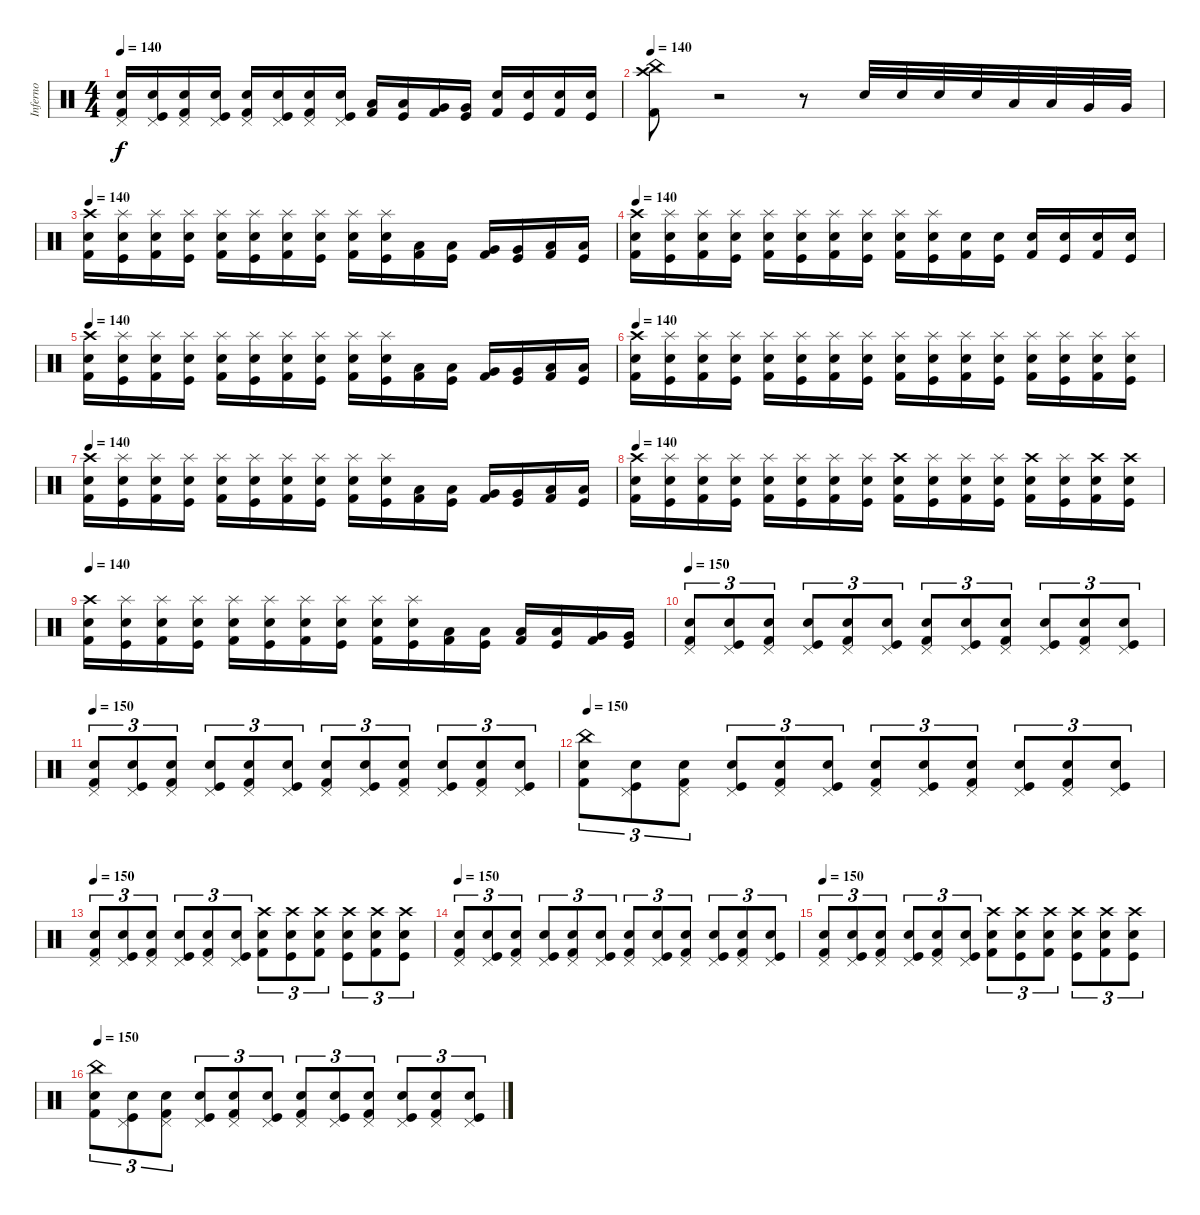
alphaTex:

\track ("Inferno" "Inferno") {instrument percussion}
\staff {score}
\articulation defaults
\ts (4 4)
\tempo 140
\clef neutral
\ks c
("Pedal Hi-Hat (hit)" "Electric Snare (hit)" "Kick (hit) 2").16{dy f} ("Pedal Hi-Hat (hit)" "Electric Snare (hit)" "Kick (hit)").16 ("Pedal Hi-Hat (hit)" "Electric Snare (hit)" "Kick (hit) 2").16 ("Pedal Hi-Hat (hit)" "Electric Snare (hit)" "Kick (hit)").16 ("Pedal Hi-Hat (hit)" "Electric Snare (hit)" "Kick (hit) 2").16 ("Pedal Hi-Hat (hit)" "Electric Snare (hit)" "Kick (hit)").16 ("Pedal Hi-Hat (hit)" "Electric Snare (hit)" "Kick (hit) 2").16 ("Pedal Hi-Hat (hit)" "Electric Snare (hit)" "Kick (hit)").16 ("Low Tom (hit)" "Kick (hit) 2").16 ("Low Tom (hit)" "Kick (hit)").16 ("Very Low Tom (hit)" "Kick (hit) 2").16 ("Very Low Tom (hit)" "Kick (hit)").16 ("Electric Snare (hit)" "Kick (hit) 2").16 ("Electric Snare (hit)" "Kick (hit)").16 ("Electric Snare (hit)" "Kick (hit) 2").16 ("Electric Snare (hit)" "Kick (hit)").16 |
\tempo 140
("Crash high (hit)" "China (hit)" "Kick (hit) 2").8 r.2 r.8 "Electric Snare (hit)".32 "Electric Snare (hit)".32 "Electric Snare (hit)".32 "Electric Snare (hit)".32 "Low Tom (hit)".32 "Low Tom (hit)".32 "Very Low Tom (hit)".32 "Very Low Tom (hit)".32 |
\tempo 140
("Crash high (hit)" "Electric Snare (hit)" "Kick (hit) 2").16 ("Splash (hit)" "Electric Snare (hit)" "Kick (hit)").16 ("Splash (hit)" "Electric Snare (hit)" "Kick (hit) 2").16 ("Splash (hit)" "Electric Snare (hit)" "Kick (hit)").16 ("Splash (hit)" "Electric Snare (hit)" "Kick (hit) 2").16 ("Splash (hit)" "Electric Snare (hit)" "Kick (hit)").16 ("Splash (hit)" "Electric Snare (hit)" "Kick (hit) 2").16 ("Splash (hit)" "Electric Snare (hit)" "Kick (hit)").16 ("Splash (hit)" "Electric Snare (hit)" "Kick (hit) 2").16 ("Splash (hit)" "Electric Snare (hit)" "Kick (hit)").16 ("Low Tom (hit)" "Kick (hit) 2").16 ("Low Tom (hit)" "Kick (hit)").16 ("Very Low Tom (hit)" "Kick (hit) 2").16 ("Very Low Tom (hit)" "Kick (hit)").16 ("Low Floor Tom (hit)" "Kick (hit) 2").16 ("Low Floor Tom (hit)" "Kick (hit)").16 |
\tempo 140
("Crash high (hit)" "Electric Snare (hit)" "Kick (hit) 2").16 ("Splash (hit)" "Electric Snare (hit)" "Kick (hit)").16 ("Splash (hit)" "Electric Snare (hit)" "Kick (hit) 2").16 ("Splash (hit)" "Electric Snare (hit)" "Kick (hit)").16 ("Splash (hit)" "Electric Snare (hit)" "Kick (hit) 2").16 ("Splash (hit)" "Electric Snare (hit)" "Kick (hit)").16 ("Splash (hit)" "Electric Snare (hit)" "Kick (hit) 2").16 ("Splash (hit)" "Electric Snare (hit)" "Kick (hit)").16 ("Splash (hit)" "Electric Snare (hit)" "Kick (hit) 2").16 ("Splash (hit)" "Electric Snare (hit)" "Kick (hit)").16 ("Electric Snare (hit)" "Kick (hit) 2").16 ("Electric Snare (hit)" "Kick (hit)").16 ("Electric Snare (hit)" "Kick (hit) 2").16 ("Electric Snare (hit)" "Kick (hit)").16 ("Electric Snare (hit)" "Kick (hit) 2").16 ("Electric Snare (hit)" "Kick (hit)").16 |
\tempo 140
("Crash high (hit)" "Electric Snare (hit)" "Kick (hit) 2").16 ("Splash (hit)" "Electric Snare (hit)" "Kick (hit)").16 ("Splash (hit)" "Electric Snare (hit)" "Kick (hit) 2").16 ("Splash (hit)" "Electric Snare (hit)" "Kick (hit)").16 ("Splash (hit)" "Electric Snare (hit)" "Kick (hit) 2").16 ("Splash (hit)" "Electric Snare (hit)" "Kick (hit)").16 ("Splash (hit)" "Electric Snare (hit)" "Kick (hit) 2").16 ("Splash (hit)" "Electric Snare (hit)" "Kick (hit)").16 ("Splash (hit)" "Electric Snare (hit)" "Kick (hit) 2").16 ("Splash (hit)" "Electric Snare (hit)" "Kick (hit)").16 ("Low Tom (hit)" "Kick (hit) 2").16 ("Low Tom (hit)" "Kick (hit)").16 ("Very Low Tom (hit)" "Kick (hit) 2").16 ("Very Low Tom (hit)" "Kick (hit)").16 ("Low Floor Tom (hit)" "Kick (hit) 2").16 ("Low Floor Tom (hit)" "Kick (hit)").16 |
\tempo 140
("Crash high (hit)" "Electric Snare (hit)" "Kick (hit) 2").16 ("Splash (hit)" "Electric Snare (hit)" "Kick (hit)").16 ("Splash (hit)" "Electric Snare (hit)" "Kick (hit) 2").16 ("Splash (hit)" "Electric Snare (hit)" "Kick (hit)").16 ("Splash (hit)" "Electric Snare (hit)" "Kick (hit) 2").16 ("Splash (hit)" "Electric Snare (hit)" "Kick (hit)").16 ("Splash (hit)" "Electric Snare (hit)" "Kick (hit) 2").16 ("Splash (hit)" "Electric Snare (hit)" "Kick (hit)").16 ("Splash (hit)" "Electric Snare (hit)" "Kick (hit) 2").16 ("Splash (hit)" "Electric Snare (hit)" "Kick (hit)").16 ("Splash (hit)" "Electric Snare (hit)" "Kick (hit) 2").16 ("Splash (hit)" "Electric Snare (hit)" "Kick (hit)").16 ("Splash (hit)" "Electric Snare (hit)" "Kick (hit) 2").16 ("Splash (hit)" "Electric Snare (hit)" "Kick (hit)").16 ("Splash (hit)" "Electric Snare (hit)" "Kick (hit) 2").16 ("Splash (hit)" "Electric Snare (hit)" "Kick (hit)").16 |
\tempo 140
("Crash high (hit)" "Electric Snare (hit)" "Kick (hit) 2").16 ("Splash (hit)" "Electric Snare (hit)" "Kick (hit)").16 ("Splash (hit)" "Electric Snare (hit)" "Kick (hit) 2").16 ("Splash (hit)" "Electric Snare (hit)" "Kick (hit)").16 ("Splash (hit)" "Electric Snare (hit)" "Kick (hit) 2").16 ("Splash (hit)" "Electric Snare (hit)" "Kick (hit)").16 ("Splash (hit)" "Electric Snare (hit)" "Kick (hit) 2").16 ("Splash (hit)" "Electric Snare (hit)" "Kick (hit)").16 ("Splash (hit)" "Electric Snare (hit)" "Kick (hit) 2").16 ("Splash (hit)" "Electric Snare (hit)" "Kick (hit)").16 ("Low Tom (hit)" "Kick (hit) 2").16 ("Low Tom (hit)" "Kick (hit)").16 ("Very Low Tom (hit)" "Kick (hit) 2").16 ("Very Low Tom (hit)" "Kick (hit)").16 ("Low Floor Tom (hit)" "Kick (hit) 2").16 ("Low Floor Tom (hit)" "Kick (hit)").16 |
\tempo 140
("Crash high (hit)" "Electric Snare (hit)" "Kick (hit) 2").16 ("Splash (hit)" "Electric Snare (hit)" "Kick (hit)").16 ("Splash (hit)" "Electric Snare (hit)" "Kick (hit) 2").16 ("Splash (hit)" "Electric Snare (hit)" "Kick (hit)").16 ("Splash (hit)" "Electric Snare (hit)" "Kick (hit) 2").16 ("Splash (hit)" "Electric Snare (hit)" "Kick (hit)").16 ("Splash (hit)" "Electric Snare (hit)" "Kick (hit) 2").16 ("Splash (hit)" "Electric Snare (hit)" "Kick (hit)").16 ("Crash high (hit)" "Electric Snare (hit)" "Kick (hit) 2").16 ("Splash (hit)" "Electric Snare (hit)" "Kick (hit)").16 ("Splash (hit)" "Electric Snare (hit)" "Kick (hit) 2").16 ("Splash (hit)" "Electric Snare (hit)" "Kick (hit)").16 ("Crash high (hit)" "Electric Snare (hit)" "Kick (hit) 2").16 ("Splash (hit)" "Electric Snare (hit)" "Kick (hit)").16 ("Crash high (hit)" "Electric Snare (hit)" "Kick (hit) 2").16 ("Crash high (hit)" "Electric Snare (hit)" "Kick (hit)").16 |
\tempo 140
("Crash high (hit)" "Electric Snare (hit)" "Kick (hit) 2").16 ("Splash (hit)" "Electric Snare (hit)" "Kick (hit)").16 ("Splash (hit)" "Electric Snare (hit)" "Kick (hit) 2").16 ("Splash (hit)" "Electric Snare (hit)" "Kick (hit)").16 ("Splash (hit)" "Electric Snare (hit)" "Kick (hit) 2").16 ("Splash (hit)" "Electric Snare (hit)" "Kick (hit)").16 ("Splash (hit)" "Electric Snare (hit)" "Kick (hit) 2").16 ("Splash (hit)" "Electric Snare (hit)" "Kick (hit)").16 ("Splash (hit)" "Electric Snare (hit)" "Kick (hit) 2").16 ("Splash (hit)" "Electric Snare (hit)" "Kick (hit)").16 ("Low Tom (hit)" "Kick (hit) 2").16 ("Low Tom (hit)" "Kick (hit)").16 ("Low Tom (hit)" "Kick (hit) 2").16 ("Low Tom (hit)" "Kick (hit)").16 ("Very Low Tom (hit)" "Kick (hit) 2").16 ("Very Low Tom (hit)" "Kick (hit)").16 |
\tempo 150
("Pedal Hi-Hat (hit)" "Electric Snare (hit)" "Kick (hit) 2").8{tu (3 2)} ("Pedal Hi-Hat (hit)" "Electric Snare (hit)" "Kick (hit)").8{tu (3 2)} ("Pedal Hi-Hat (hit)" "Electric Snare (hit)" "Kick (hit) 2").8{tu (3 2)} ("Pedal Hi-Hat (hit)" "Electric Snare (hit)" "Kick (hit)").8{tu (3 2)} ("Pedal Hi-Hat (hit)" "Electric Snare (hit)" "Kick (hit) 2").8{tu (3 2)} ("Pedal Hi-Hat (hit)" "Electric Snare (hit)" "Kick (hit)").8{tu (3 2)} ("Pedal Hi-Hat (hit)" "Electric Snare (hit)" "Kick (hit) 2").8{tu (3 2)} ("Pedal Hi-Hat (hit)" "Electric Snare (hit)" "Kick (hit)").8{tu (3 2)} ("Pedal Hi-Hat (hit)" "Electric Snare (hit)" "Kick (hit) 2").8{tu (3 2)} ("Pedal Hi-Hat (hit)" "Electric Snare (hit)" "Kick (hit)").8{tu (3 2)} ("Pedal Hi-Hat (hit)" "Electric Snare (hit)" "Kick (hit) 2").8{tu (3 2)} ("Pedal Hi-Hat (hit)" "Electric Snare (hit)" "Kick (hit)").8{tu (3 2)} |
\tempo 150
("Pedal Hi-Hat (hit)" "Electric Snare (hit)" "Kick (hit) 2").8{tu (3 2)} ("Pedal Hi-Hat (hit)" "Electric Snare (hit)" "Kick (hit)").8{tu (3 2)} ("Pedal Hi-Hat (hit)" "Electric Snare (hit)" "Kick (hit) 2").8{tu (3 2)} ("Pedal Hi-Hat (hit)" "Electric Snare (hit)" "Kick (hit)").8{tu (3 2)} ("Pedal Hi-Hat (hit)" "Electric Snare (hit)" "Kick (hit) 2").8{tu (3 2)} ("Pedal Hi-Hat (hit)" "Electric Snare (hit)" "Kick (hit)").8{tu (3 2)} ("Pedal Hi-Hat (hit)" "Electric Snare (hit)" "Kick (hit) 2").8{tu (3 2)} ("Pedal Hi-Hat (hit)" "Electric Snare (hit)" "Kick (hit)").8{tu (3 2)} ("Pedal Hi-Hat (hit)" "Electric Snare (hit)" "Kick (hit) 2").8{tu (3 2)} ("Pedal Hi-Hat (hit)" "Electric Snare (hit)" "Kick (hit)").8{tu (3 2)} ("Pedal Hi-Hat (hit)" "Electric Snare (hit)" "Kick (hit) 2").8{tu (3 2)} ("Pedal Hi-Hat (hit)" "Electric Snare (hit)" "Kick (hit)").8{tu (3 2)} |
\tempo 150
("China (hit)" "Electric Snare (hit)" "Kick (hit) 2").8{tu (3 2)} ("Pedal Hi-Hat (hit)" "Electric Snare (hit)" "Kick (hit)").8{tu (3 2)} ("Pedal Hi-Hat (hit)" "Electric Snare (hit)" "Kick (hit) 2").8{tu (3 2)} ("Pedal Hi-Hat (hit)" "Electric Snare (hit)" "Kick (hit)").8{tu (3 2)} ("Pedal Hi-Hat (hit)" "Electric Snare (hit)" "Kick (hit) 2").8{tu (3 2)} ("Pedal Hi-Hat (hit)" "Electric Snare (hit)" "Kick (hit)").8{tu (3 2)} ("Pedal Hi-Hat (hit)" "Electric Snare (hit)" "Kick (hit) 2").8{tu (3 2)} ("Pedal Hi-Hat (hit)" "Electric Snare (hit)" "Kick (hit)").8{tu (3 2)} ("Pedal Hi-Hat (hit)" "Electric Snare (hit)" "Kick (hit) 2").8{tu (3 2)} ("Pedal Hi-Hat (hit)" "Electric Snare (hit)" "Kick (hit)").8{tu (3 2)} ("Pedal Hi-Hat (hit)" "Electric Snare (hit)" "Kick (hit) 2").8{tu (3 2)} ("Pedal Hi-Hat (hit)" "Electric Snare (hit)" "Kick (hit)").8{tu (3 2)} |
\tempo 150
("Pedal Hi-Hat (hit)" "Electric Snare (hit)" "Kick (hit) 2").8{tu (3 2)} ("Pedal Hi-Hat (hit)" "Electric Snare (hit)" "Kick (hit)").8{tu (3 2)} ("Pedal Hi-Hat (hit)" "Electric Snare (hit)" "Kick (hit) 2").8{tu (3 2)} ("Pedal Hi-Hat (hit)" "Electric Snare (hit)" "Kick (hit)").8{tu (3 2)} ("Pedal Hi-Hat (hit)" "Electric Snare (hit)" "Kick (hit) 2").8{tu (3 2)} ("Pedal Hi-Hat (hit)" "Electric Snare (hit)" "Kick (hit)").8{tu (3 2)} ("Crash high (hit)" "Electric Snare (hit)" "Kick (hit) 2").8{tu (3 2)} ("Crash high (hit)" "Electric Snare (hit)" "Kick (hit)").8{tu (3 2)} ("Crash high (hit)" "Electric Snare (hit)" "Kick (hit) 2").8{tu (3 2)} ("Crash high (hit)" "Electric Snare (hit)" "Kick (hit)").8{tu (3 2)} ("Crash high (hit)" "Electric Snare (hit)" "Kick (hit) 2").8{tu (3 2)} ("Crash high (hit)" "Electric Snare (hit)" "Kick (hit)").8{tu (3 2)} |
\tempo 150
("Pedal Hi-Hat (hit)" "Electric Snare (hit)" "Kick (hit) 2").8{tu (3 2)} ("Pedal Hi-Hat (hit)" "Electric Snare (hit)" "Kick (hit)").8{tu (3 2)} ("Pedal Hi-Hat (hit)" "Electric Snare (hit)" "Kick (hit) 2").8{tu (3 2)} ("Pedal Hi-Hat (hit)" "Electric Snare (hit)" "Kick (hit)").8{tu (3 2)} ("Pedal Hi-Hat (hit)" "Electric Snare (hit)" "Kick (hit) 2").8{tu (3 2)} ("Pedal Hi-Hat (hit)" "Electric Snare (hit)" "Kick (hit)").8{tu (3 2)} ("Pedal Hi-Hat (hit)" "Electric Snare (hit)" "Kick (hit) 2").8{tu (3 2)} ("Pedal Hi-Hat (hit)" "Electric Snare (hit)" "Kick (hit)").8{tu (3 2)} ("Pedal Hi-Hat (hit)" "Electric Snare (hit)" "Kick (hit) 2").8{tu (3 2)} ("Pedal Hi-Hat (hit)" "Electric Snare (hit)" "Kick (hit)").8{tu (3 2)} ("Pedal Hi-Hat (hit)" "Electric Snare (hit)" "Kick (hit) 2").8{tu (3 2)} ("Pedal Hi-Hat (hit)" "Electric Snare (hit)" "Kick (hit)").8{tu (3 2)} |
\tempo 150
("Pedal Hi-Hat (hit)" "Electric Snare (hit)" "Kick (hit) 2").8{tu (3 2)} ("Pedal Hi-Hat (hit)" "Electric Snare (hit)" "Kick (hit)").8{tu (3 2)} ("Pedal Hi-Hat (hit)" "Electric Snare (hit)" "Kick (hit) 2").8{tu (3 2)} ("Pedal Hi-Hat (hit)" "Electric Snare (hit)" "Kick (hit)").8{tu (3 2)} ("Pedal Hi-Hat (hit)" "Electric Snare (hit)" "Kick (hit) 2").8{tu (3 2)} ("Pedal Hi-Hat (hit)" "Electric Snare (hit)" "Kick (hit)").8{tu (3 2)} ("Crash high (hit)" "Electric Snare (hit)" "Kick (hit) 2").8{tu (3 2)} ("Crash high (hit)" "Electric Snare (hit)" "Kick (hit)").8{tu (3 2)} ("Crash high (hit)" "Electric Snare (hit)" "Kick (hit) 2").8{tu (3 2)} ("Crash high (hit)" "Electric Snare (hit)" "Kick (hit)").8{tu (3 2)} ("Crash high (hit)" "Electric Snare (hit)" "Kick (hit) 2").8{tu (3 2)} ("Crash high (hit)" "Electric Snare (hit)" "Kick (hit)").8{tu (3 2)} |
\tempo 150
("China (hit)" "Electric Snare (hit)" "Kick (hit) 2").8{tu (3 2)} ("Pedal Hi-Hat (hit)" "Electric Snare (hit)" "Kick (hit)").8{tu (3 2)} ("Pedal Hi-Hat (hit)" "Electric Snare (hit)" "Kick (hit) 2").8{tu (3 2)} ("Pedal Hi-Hat (hit)" "Electric Snare (hit)" "Kick (hit)").8{tu (3 2)} ("Pedal Hi-Hat (hit)" "Electric Snare (hit)" "Kick (hit) 2").8{tu (3 2)} ("Pedal Hi-Hat (hit)" "Electric Snare (hit)" "Kick (hit)").8{tu (3 2)} ("Pedal Hi-Hat (hit)" "Electric Snare (hit)" "Kick (hit) 2").8{tu (3 2)} ("Pedal Hi-Hat (hit)" "Electric Snare (hit)" "Kick (hit)").8{tu (3 2)} ("Pedal Hi-Hat (hit)" "Electric Snare (hit)" "Kick (hit) 2").8{tu (3 2)} ("Pedal Hi-Hat (hit)" "Electric Snare (hit)" "Kick (hit)").8{tu (3 2)} ("Pedal Hi-Hat (hit)" "Electric Snare (hit)" "Kick (hit) 2").8{tu (3 2)} ("Pedal Hi-Hat (hit)" "Electric Snare (hit)" "Kick (hit)").8{tu (3 2)}
